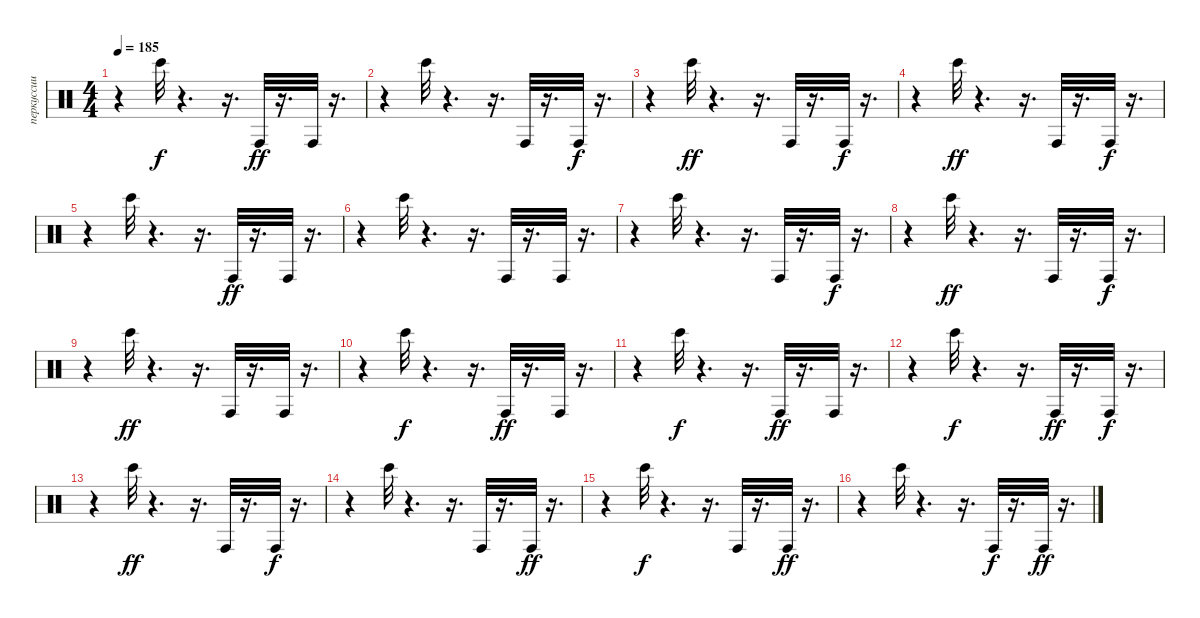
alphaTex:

\track ("перкуссии" "перкуссии") {instrument percussion}
\staff {score}
\articulation defaults
\ts (4 4)
\tempo 185
\clef neutral
\ks c
r.4{dy f} "Bongo High (hit)".32 r.4{d} r.16{d} "Conga high (hit)".32{dy ff} r.16{d} "Conga high (hit)".32 r.16{d} |
r.4 "Bongo High (hit)".32 r.4{d} r.16{d} "Conga high (hit)".32 r.16{d} "Conga high (hit)".32{dy f} r.16{d} |
r.4 "Bongo High (hit)".32{dy ff} r.4{d} r.16{d} "Conga high (hit)".32 r.16{d} "Conga high (hit)".32{dy f} r.16{d} |
r.4 "Bongo High (hit)".32{dy ff} r.4{d} r.16{d} "Conga high (hit)".32 r.16{d} "Conga high (hit)".32{dy f} r.16{d} |
r.4 "Bongo High (hit)".32 r.4{d} r.16{d} "Conga high (hit)".32{dy ff} r.16{d} "Conga high (hit)".32 r.16{d} |
r.4 "Bongo High (hit)".32 r.4{d} r.16{d} "Conga high (hit)".32 r.16{d} "Conga high (hit)".32 r.16{d} |
r.4 "Bongo High (hit)".32 r.4{d} r.16{d} "Conga high (hit)".32 r.16{d} "Conga high (hit)".32{dy f} r.16{d} |
r.4 "Bongo High (hit)".32{dy ff} r.4{d} r.16{d} "Conga high (hit)".32 r.16{d} "Conga high (hit)".32{dy f} r.16{d} |
r.4 "Bongo High (hit)".32{dy ff} r.4{d} r.16{d} "Conga high (hit)".32 r.16{d} "Conga high (hit)".32 r.16{d} |
r.4 "Bongo High (hit)".32{dy f} r.4{d} r.16{d} "Conga high (hit)".32{dy ff} r.16{d} "Conga high (hit)".32 r.16{d} |
r.4 "Bongo High (hit)".32{dy f} r.4{d} r.16{d} "Conga high (hit)".32{dy ff} r.16{d} "Conga high (hit)".32 r.16{d} |
r.4 "Bongo High (hit)".32{dy f} r.4{d} r.16{d} "Conga high (hit)".32{dy ff} r.16{d} "Conga high (hit)".32{dy f} r.16{d} |
r.4 "Bongo High (hit)".32{dy ff} r.4{d} r.16{d} "Conga high (hit)".32 r.16{d} "Conga high (hit)".32{dy f} r.16{d} |
r.4 "Bongo High (hit)".32 r.4{d} r.16{d} "Conga high (hit)".32 r.16{d} "Conga high (hit)".32{dy ff} r.16{d} |
r.4 "Bongo High (hit)".32{dy f} r.4{d} r.16{d} "Conga high (hit)".32 r.16{d} "Conga high (hit)".32{dy ff} r.16{d} |
r.4 "Bongo High (hit)".32 r.4{d} r.16{d} "Conga high (hit)".32{dy f} r.16{d} "Conga high (hit)".32{dy ff} r.16{d}
